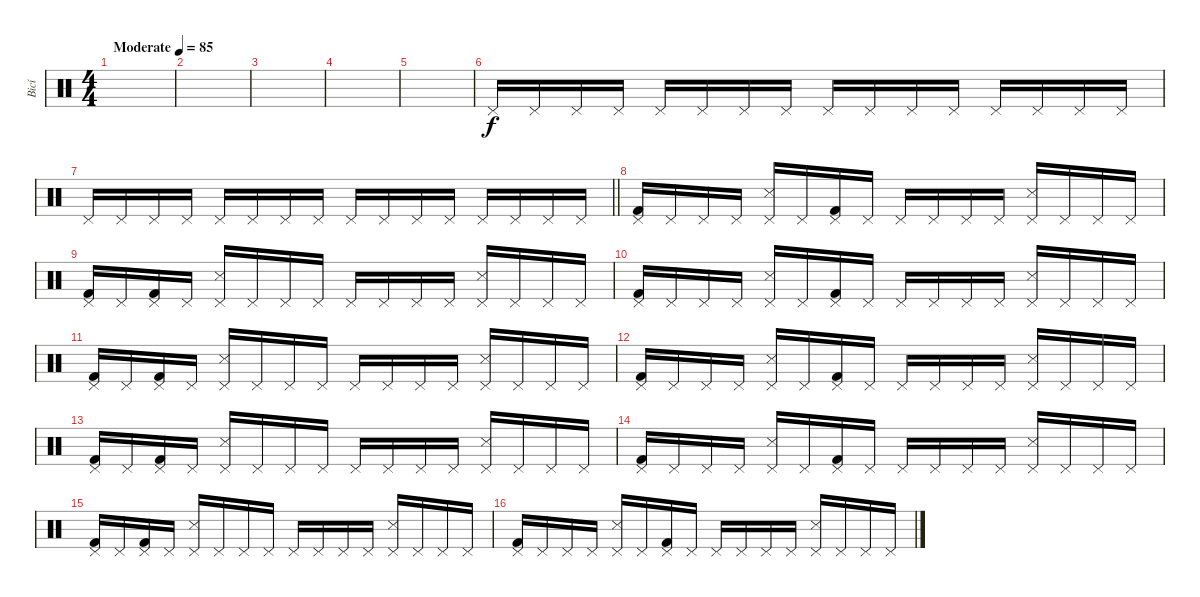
\track ("Bicí" "Bicí") {instrument percussion}
\staff {score}
\articulation defaults
\ts (4 4)
\tempo (85 "Moderate")
\clef neutral
\ks c
|
|
|
|
|
"Pedal Hi-Hat (hit)".16 "Pedal Hi-Hat (hit)".16 "Pedal Hi-Hat (hit)".16 "Pedal Hi-Hat (hit)".16 "Pedal Hi-Hat (hit)".16 "Pedal Hi-Hat (hit)".16 "Pedal Hi-Hat (hit)".16 "Pedal Hi-Hat (hit)".16 "Pedal Hi-Hat (hit)".16 "Pedal Hi-Hat (hit)".16 "Pedal Hi-Hat (hit)".16 "Pedal Hi-Hat (hit)".16 "Pedal Hi-Hat (hit)".16 "Pedal Hi-Hat (hit)".16 "Pedal Hi-Hat (hit)".16 "Pedal Hi-Hat (hit)".16 |
\barLineRight lightlight "Pedal Hi-Hat (hit)".16 "Pedal Hi-Hat (hit)".16 "Pedal Hi-Hat (hit)".16 "Pedal Hi-Hat (hit)".16 "Pedal Hi-Hat (hit)".16 "Pedal Hi-Hat (hit)".16 "Pedal Hi-Hat (hit)".16 "Pedal Hi-Hat (hit)".16 "Pedal Hi-Hat (hit)".16 "Pedal Hi-Hat (hit)".16 "Pedal Hi-Hat (hit)".16 "Pedal Hi-Hat (hit)".16 "Pedal Hi-Hat (hit)".16 "Pedal Hi-Hat (hit)".16 "Pedal Hi-Hat (hit)".16 "Pedal Hi-Hat (hit)".16
|
\section ("" "")
("Pedal Hi-Hat (hit)" "Kick (hit) 2").16 "Pedal Hi-Hat (hit)".16 "Pedal Hi-Hat (hit)".16 "Pedal Hi-Hat (hit)".16 ("Pedal Hi-Hat (hit)" "Snare (side stick) 3").16 "Pedal Hi-Hat (hit)".16 ("Pedal Hi-Hat (hit)" "Kick (hit) 2").16 "Pedal Hi-Hat (hit)".16 "Pedal Hi-Hat (hit)".16 "Pedal Hi-Hat (hit)".16 "Pedal Hi-Hat (hit)".16 "Pedal Hi-Hat (hit)".16 ("Pedal Hi-Hat (hit)" "Snare (side stick) 3").16 "Pedal Hi-Hat (hit)".16 "Pedal Hi-Hat (hit)".16 "Pedal Hi-Hat (hit)".16 |
("Pedal Hi-Hat (hit)" "Kick (hit) 2").16 "Pedal Hi-Hat (hit)".16 ("Pedal Hi-Hat (hit)" "Kick (hit) 2").16 "Pedal Hi-Hat (hit)".16 ("Pedal Hi-Hat (hit)" "Snare (side stick) 3").16 "Pedal Hi-Hat (hit)".16 "Pedal Hi-Hat (hit)".16 "Pedal Hi-Hat (hit)".16 "Pedal Hi-Hat (hit)".16 "Pedal Hi-Hat (hit)".16 "Pedal Hi-Hat (hit)".16 "Pedal Hi-Hat (hit)".16 ("Pedal Hi-Hat (hit)" "Snare (side stick) 3").16 "Pedal Hi-Hat (hit)".16 "Pedal Hi-Hat (hit)".16 "Pedal Hi-Hat (hit)".16 |
("Pedal Hi-Hat (hit)" "Kick (hit) 2").16 "Pedal Hi-Hat (hit)".16 "Pedal Hi-Hat (hit)".16 "Pedal Hi-Hat (hit)".16 ("Pedal Hi-Hat (hit)" "Snare (side stick) 3").16 "Pedal Hi-Hat (hit)".16 ("Pedal Hi-Hat (hit)" "Kick (hit) 2").16 "Pedal Hi-Hat (hit)".16 "Pedal Hi-Hat (hit)".16 "Pedal Hi-Hat (hit)".16 "Pedal Hi-Hat (hit)".16 "Pedal Hi-Hat (hit)".16 ("Pedal Hi-Hat (hit)" "Snare (side stick) 3").16 "Pedal Hi-Hat (hit)".16 "Pedal Hi-Hat (hit)".16 "Pedal Hi-Hat (hit)".16 |
("Pedal Hi-Hat (hit)" "Kick (hit) 2").16 "Pedal Hi-Hat (hit)".16 ("Pedal Hi-Hat (hit)" "Kick (hit) 2").16 "Pedal Hi-Hat (hit)".16 ("Pedal Hi-Hat (hit)" "Snare (side stick) 3").16 "Pedal Hi-Hat (hit)".16 "Pedal Hi-Hat (hit)".16 "Pedal Hi-Hat (hit)".16 "Pedal Hi-Hat (hit)".16 "Pedal Hi-Hat (hit)".16 "Pedal Hi-Hat (hit)".16 "Pedal Hi-Hat (hit)".16 ("Pedal Hi-Hat (hit)" "Snare (side stick) 3").16 "Pedal Hi-Hat (hit)".16 "Pedal Hi-Hat (hit)".16 "Pedal Hi-Hat (hit)".16 |
("Pedal Hi-Hat (hit)" "Kick (hit) 2").16 "Pedal Hi-Hat (hit)".16 "Pedal Hi-Hat (hit)".16 "Pedal Hi-Hat (hit)".16 ("Pedal Hi-Hat (hit)" "Snare (side stick) 3").16 "Pedal Hi-Hat (hit)".16 ("Pedal Hi-Hat (hit)" "Kick (hit) 2").16 "Pedal Hi-Hat (hit)".16 "Pedal Hi-Hat (hit)".16 "Pedal Hi-Hat (hit)".16 "Pedal Hi-Hat (hit)".16 "Pedal Hi-Hat (hit)".16 ("Pedal Hi-Hat (hit)" "Snare (side stick) 3").16 "Pedal Hi-Hat (hit)".16 "Pedal Hi-Hat (hit)".16 "Pedal Hi-Hat (hit)".16 |
("Pedal Hi-Hat (hit)" "Kick (hit) 2").16 "Pedal Hi-Hat (hit)".16 ("Pedal Hi-Hat (hit)" "Kick (hit) 2").16 "Pedal Hi-Hat (hit)".16 ("Pedal Hi-Hat (hit)" "Snare (side stick) 3").16 "Pedal Hi-Hat (hit)".16 "Pedal Hi-Hat (hit)".16 "Pedal Hi-Hat (hit)".16 "Pedal Hi-Hat (hit)".16 "Pedal Hi-Hat (hit)".16 "Pedal Hi-Hat (hit)".16 "Pedal Hi-Hat (hit)".16 ("Pedal Hi-Hat (hit)" "Snare (side stick) 3").16 "Pedal Hi-Hat (hit)".16 "Pedal Hi-Hat (hit)".16 "Pedal Hi-Hat (hit)".16 |
("Pedal Hi-Hat (hit)" "Kick (hit) 2").16 "Pedal Hi-Hat (hit)".16 "Pedal Hi-Hat (hit)".16 "Pedal Hi-Hat (hit)".16 ("Pedal Hi-Hat (hit)" "Snare (side stick) 3").16 "Pedal Hi-Hat (hit)".16 ("Pedal Hi-Hat (hit)" "Kick (hit) 2").16 "Pedal Hi-Hat (hit)".16 "Pedal Hi-Hat (hit)".16 "Pedal Hi-Hat (hit)".16 "Pedal Hi-Hat (hit)".16 "Pedal Hi-Hat (hit)".16 ("Pedal Hi-Hat (hit)" "Snare (side stick) 3").16 "Pedal Hi-Hat (hit)".16 "Pedal Hi-Hat (hit)".16 "Pedal Hi-Hat (hit)".16 |
("Pedal Hi-Hat (hit)" "Kick (hit) 2").16 "Pedal Hi-Hat (hit)".16 ("Pedal Hi-Hat (hit)" "Kick (hit) 2").16 "Pedal Hi-Hat (hit)".16 ("Pedal Hi-Hat (hit)" "Snare (side stick) 3").16 "Pedal Hi-Hat (hit)".16 "Pedal Hi-Hat (hit)".16 "Pedal Hi-Hat (hit)".16 "Pedal Hi-Hat (hit)".16 "Pedal Hi-Hat (hit)".16 "Pedal Hi-Hat (hit)".16 "Pedal Hi-Hat (hit)".16 ("Pedal Hi-Hat (hit)" "Snare (side stick) 3").16 "Pedal Hi-Hat (hit)".16 "Pedal Hi-Hat (hit)".16 "Pedal Hi-Hat (hit)".16 |
("Pedal Hi-Hat (hit)" "Kick (hit) 2").16 "Pedal Hi-Hat (hit)".16 "Pedal Hi-Hat (hit)".16 "Pedal Hi-Hat (hit)".16 ("Pedal Hi-Hat (hit)" "Snare (side stick) 3").16 "Pedal Hi-Hat (hit)".16 ("Pedal Hi-Hat (hit)" "Kick (hit) 2").16 "Pedal Hi-Hat (hit)".16 "Pedal Hi-Hat (hit)".16 "Pedal Hi-Hat (hit)".16 "Pedal Hi-Hat (hit)".16 "Pedal Hi-Hat (hit)".16 ("Pedal Hi-Hat (hit)" "Snare (side stick) 3").16 "Pedal Hi-Hat (hit)".16 "Pedal Hi-Hat (hit)".16 "Pedal Hi-Hat (hit)".16
